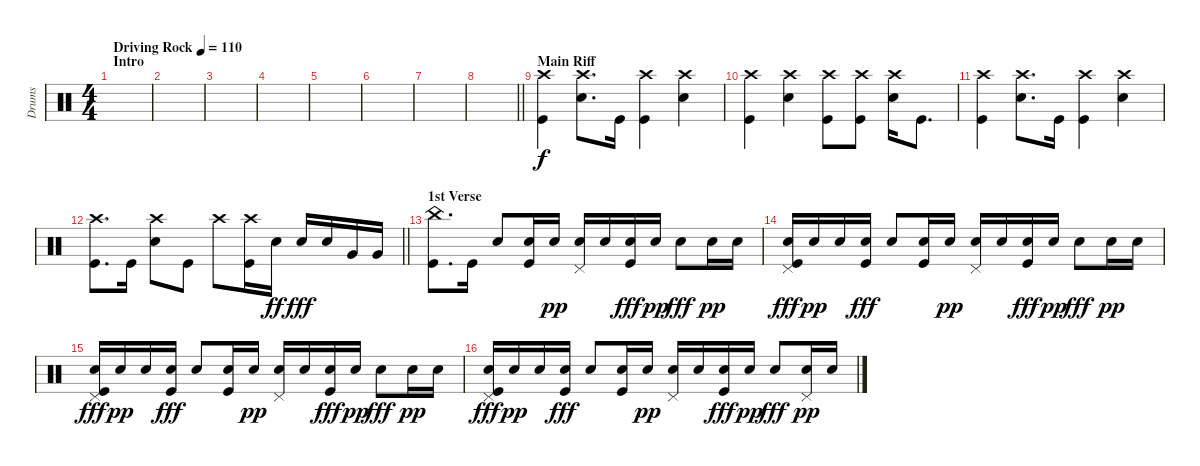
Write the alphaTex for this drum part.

\track ("Drums" "Drums") {instrument percussion}
\staff {score}
\articulation defaults
\ts (4 4)
\section ("" "Intro")
\tempo (110 "Driving Rock")
\clef neutral
\ks c
|
|
|
|
|
|
|
\barLineRight lightlight
|
\section ("" "Main Riff")
("Crash high (hit)" "Kick (hit)").4 ("Crash high (hit)" "Snare (hit) 2").8{d} "Kick (hit)".16 ("Crash high (hit)" "Kick (hit)").4 ("Crash high (hit)" "Snare (hit) 2").4 |
("Crash high (hit)" "Kick (hit)").4 ("Crash high (hit)" "Snare (hit) 2").4 ("Crash high (hit)" "Kick (hit)").8 ("Crash high (hit)" "Kick (hit)").8 ("Crash high (hit)" "Snare (hit) 2").16 "Kick (hit)".8{d} |
("Crash high (hit)" "Kick (hit)").4 ("Crash high (hit)" "Snare (hit) 2").8{d} "Kick (hit)".16 ("Crash high (hit)" "Kick (hit)").4 ("Crash high (hit)" "Snare (hit) 2").4 |
\barLineRight lightlight
("Crash high (hit)" "Kick (hit)").8{d} "Kick (hit)".16 ("Crash high (hit)" "Snare (hit) 2").8 "Kick (hit)".8 "Crash high (hit)".8 ("Crash high (hit)" "Kick (hit)").16 "Snare (hit) 2".16{dy ff} "Snare (hit) 2".16{dy fff} "Snare (hit) 2".16 "Very Low Tom (hit)".16 "Very Low Tom (hit)".16 |
\section ("" "1st Verse")
("China (hit)" "Kick (hit)").8{d} "Kick (hit)".16 "Snare (hit) 2".8 ("Snare (hit) 2" "Kick (hit)").16 "Snare (hit) 2".16{dy pp} ("Pedal Hi-Hat (hit)" "Snare (hit) 2").16 "Snare (hit) 2".16 ("Snare (hit) 2" "Kick (hit)").16{dy fff} "Snare (hit) 2".16{dy pp} "Snare (hit) 2".8{dy fff} "Snare (hit) 2".16{dy pp} "Snare (hit) 2".16 |
("Pedal Hi-Hat (hit)" "Snare (hit) 2" "Kick (hit)").16{dy fff} "Snare (hit) 2".16{dy pp} "Snare (hit) 2".16 ("Snare (hit) 2" "Kick (hit)").16{dy fff} "Snare (hit) 2".8 ("Snare (hit) 2" "Kick (hit)").16 "Snare (hit) 2".16{dy pp} ("Pedal Hi-Hat (hit)" "Snare (hit) 2").16 "Snare (hit) 2".16 ("Snare (hit) 2" "Kick (hit)").16{dy fff} "Snare (hit) 2".16{dy pp} "Snare (hit) 2".8{dy fff} "Snare (hit) 2".16{dy pp} "Snare (hit) 2".16 |
("Pedal Hi-Hat (hit)" "Snare (hit) 2" "Kick (hit)").16{dy fff} "Snare (hit) 2".16{dy pp} "Snare (hit) 2".16 ("Snare (hit) 2" "Kick (hit)").16{dy fff} "Snare (hit) 2".8 ("Snare (hit) 2" "Kick (hit)").16 "Snare (hit) 2".16{dy pp} ("Pedal Hi-Hat (hit)" "Snare (hit) 2").16 "Snare (hit) 2".16 ("Snare (hit) 2" "Kick (hit)").16{dy fff} "Snare (hit) 2".16{dy pp} "Snare (hit) 2".8{dy fff} "Snare (hit) 2".16{dy pp} "Snare (hit) 2".16 |
("Pedal Hi-Hat (hit)" "Snare (hit) 2" "Kick (hit)").16{dy fff} "Snare (hit) 2".16{dy pp} "Snare (hit) 2".16 ("Snare (hit) 2" "Kick (hit)").16{dy fff} "Snare (hit) 2".8 ("Snare (hit) 2" "Kick (hit)").16 "Snare (hit) 2".16{dy pp} ("Pedal Hi-Hat (hit)" "Snare (hit) 2").16 "Snare (hit) 2".16 ("Snare (hit) 2" "Kick (hit)").16{dy fff} "Snare (hit) 2".16{dy pp} "Snare (hit) 2".8{dy fff} ("Pedal Hi-Hat (hit)" "Snare (hit) 2").16{dy pp} "Snare (hit) 2".16
